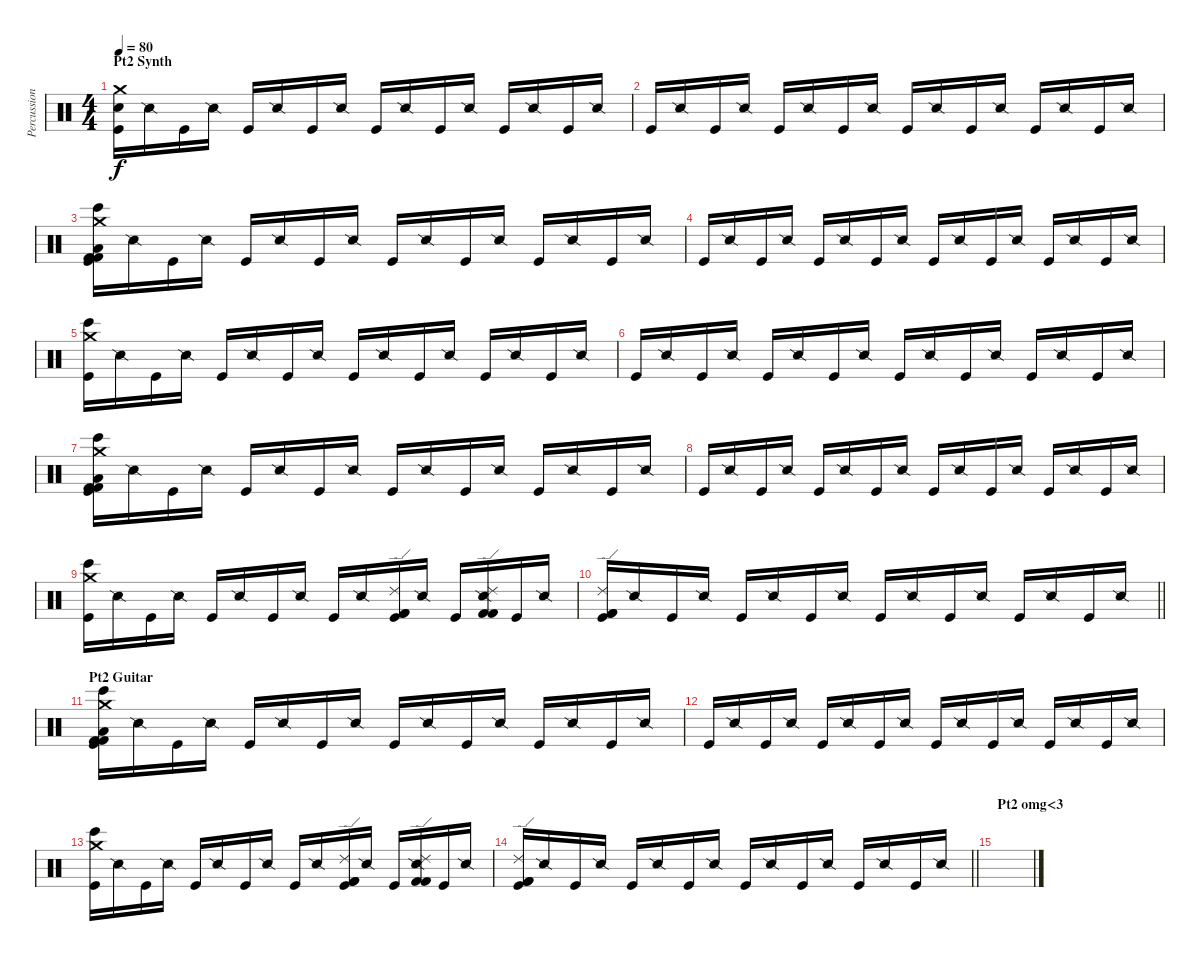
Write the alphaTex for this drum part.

\track ("Percussion" "Percussion") {instrument percussion}
\staff {score}
\articulation defaults
\ts (4 4)
\section ("" "Pt2 Synth")
\tempo 80
\clef neutral
\ks c
("Crash medium (hit)" "Electric Snare (hit)" "Kick (hit)").16{dy f} "Snare (side stick) 2".16 "Kick (hit)".16 "Snare (side stick) 2".16 "Kick (hit)".16 "Snare (side stick) 2".16 "Kick (hit)".16 "Snare (side stick) 2".16 "Kick (hit)".16 "Snare (side stick) 2".16 "Kick (hit)".16 "Snare (side stick) 2".16 "Kick (hit)".16 "Snare (side stick) 2".16 "Kick (hit)".16 "Snare (side stick) 2".16 |
"Kick (hit)".16 "Snare (side stick) 2".16 "Kick (hit)".16 "Snare (side stick) 2".16 "Kick (hit)".16 "Snare (side stick) 2".16 "Kick (hit)".16 "Snare (side stick) 2".16 "Kick (hit)".16 "Snare (side stick) 2".16 "Kick (hit)".16 "Snare (side stick) 2".16 "Kick (hit)".16 "Snare (side stick) 2".16 "Kick (hit)".16 "Snare (side stick) 2".16 |
("Crash medium (hit)" "Bongo High (hit)" "Kick (hit) 2" "Low Tom (hit)" "Kick (hit) 2" "Kick (hit)").16 "Snare (side stick) 2".16 "Kick (hit)".16 "Snare (side stick) 2".16 "Kick (hit)".16 "Snare (side stick) 2".16 "Kick (hit)".16 "Snare (side stick) 2".16 "Kick (hit)".16 "Snare (side stick) 2".16 "Kick (hit)".16 "Snare (side stick) 2".16 "Kick (hit)".16 "Snare (side stick) 2".16 "Kick (hit)".16 "Snare (side stick) 2".16 |
"Kick (hit)".16 "Snare (side stick) 2".16 "Kick (hit)".16 "Snare (side stick) 2".16 "Kick (hit)".16 "Snare (side stick) 2".16 "Kick (hit)".16 "Snare (side stick) 2".16 "Kick (hit)".16 "Snare (side stick) 2".16 "Kick (hit)".16 "Snare (side stick) 2".16 "Kick (hit)".16 "Snare (side stick) 2".16 "Kick (hit)".16 "Snare (side stick) 2".16 |
("Crash medium (hit)" "Bongo High (hit)" "Kick (hit)").16 "Snare (side stick) 2".16 "Kick (hit)".16 "Snare (side stick) 2".16 "Kick (hit)".16 "Snare (side stick) 2".16 "Kick (hit)".16 "Snare (side stick) 2".16 "Kick (hit)".16 "Snare (side stick) 2".16 "Kick (hit)".16 "Snare (side stick) 2".16 "Kick (hit)".16 "Snare (side stick) 2".16 "Kick (hit)".16 "Snare (side stick) 2".16 |
"Kick (hit)".16 "Snare (side stick) 2".16 "Kick (hit)".16 "Snare (side stick) 2".16 "Kick (hit)".16 "Snare (side stick) 2".16 "Kick (hit)".16 "Snare (side stick) 2".16 "Kick (hit)".16 "Snare (side stick) 2".16 "Kick (hit)".16 "Snare (side stick) 2".16 "Kick (hit)".16 "Snare (side stick) 2".16 "Kick (hit)".16 "Snare (side stick) 2".16 |
("Crash medium (hit)" "Bongo High (hit)" "Kick (hit) 2" "Low Tom (hit)" "Kick (hit) 2" "Kick (hit)").16 "Snare (side stick) 2".16 "Kick (hit)".16 "Snare (side stick) 2".16 "Kick (hit)".16 "Snare (side stick) 2".16 "Kick (hit)".16 "Snare (side stick) 2".16 "Kick (hit)".16 "Snare (side stick) 2".16 "Kick (hit)".16 "Snare (side stick) 2".16 "Kick (hit)".16 "Snare (side stick) 2".16 "Kick (hit)".16 "Snare (side stick) 2".16 |
"Kick (hit)".16 "Snare (side stick) 2".16 "Kick (hit)".16 "Snare (side stick) 2".16 "Kick (hit)".16 "Snare (side stick) 2".16 "Kick (hit)".16 "Snare (side stick) 2".16 "Kick (hit)".16 "Snare (side stick) 2".16 "Kick (hit)".16 "Snare (side stick) 2".16 "Kick (hit)".16 "Snare (side stick) 2".16 "Kick (hit)".16 "Snare (side stick) 2".16 |
("Crash medium (hit)" "Bongo High (hit)" "Kick (hit)").16 "Snare (side stick) 2".16 "Kick (hit)".16 "Snare (side stick) 2".16 "Kick (hit)".16 "Snare (side stick) 2".16 "Kick (hit)".16 "Snare (side stick) 2".16 "Kick (hit)".16 "Snare (side stick) 2".16 ("Ride (edge) 2" "Kick (hit) 2" "Kick (hit) 2" "Kick (hit)").16 "Snare (side stick) 2".16 "Kick (hit)".16 ("Ride (edge) 2" "Kick (hit) 2" "Kick (hit) 2" "Snare (side stick) 2").16 "Kick (hit)".16 "Snare (side stick) 2".16 |
\barLineRight lightlight
("Ride (edge) 2" "Kick (hit) 2" "Kick (hit) 2" "Kick (hit)").16 "Snare (side stick) 2".16 "Kick (hit)".16 "Snare (side stick) 2".16 "Kick (hit)".16 "Snare (side stick) 2".16 "Kick (hit)".16 "Snare (side stick) 2".16 "Kick (hit)".16 "Snare (side stick) 2".16 "Kick (hit)".16 "Snare (side stick) 2".16 "Kick (hit)".16 "Snare (side stick) 2".16 "Kick (hit)".16 "Snare (side stick) 2".16 |
\section ("" "Pt2 Guitar")
("Crash medium (hit)" "Bongo High (hit)" "Kick (hit) 2" "Low Tom (hit)" "Kick (hit) 2" "Kick (hit)").16 "Snare (side stick) 2".16 "Kick (hit)".16 "Snare (side stick) 2".16 "Kick (hit)".16 "Snare (side stick) 2".16 "Kick (hit)".16 "Snare (side stick) 2".16 "Kick (hit)".16 "Snare (side stick) 2".16 "Kick (hit)".16 "Snare (side stick) 2".16 "Kick (hit)".16 "Snare (side stick) 2".16 "Kick (hit)".16 "Snare (side stick) 2".16 |
"Kick (hit)".16 "Snare (side stick) 2".16 "Kick (hit)".16 "Snare (side stick) 2".16 "Kick (hit)".16 "Snare (side stick) 2".16 "Kick (hit)".16 "Snare (side stick) 2".16 "Kick (hit)".16 "Snare (side stick) 2".16 "Kick (hit)".16 "Snare (side stick) 2".16 "Kick (hit)".16 "Snare (side stick) 2".16 "Kick (hit)".16 "Snare (side stick) 2".16 |
("Crash medium (hit)" "Bongo High (hit)" "Kick (hit)").16 "Snare (side stick) 2".16 "Kick (hit)".16 "Snare (side stick) 2".16 "Kick (hit)".16 "Snare (side stick) 2".16 "Kick (hit)".16 "Snare (side stick) 2".16 "Kick (hit)".16 "Snare (side stick) 2".16 ("Ride (edge) 2" "Kick (hit) 2" "Kick (hit) 2" "Kick (hit)").16 "Snare (side stick) 2".16 "Kick (hit)".16 ("Ride (edge) 2" "Kick (hit) 2" "Kick (hit) 2" "Snare (side stick) 2").16 "Kick (hit)".16 "Snare (side stick) 2".16 |
\barLineRight lightlight
("Ride (edge) 2" "Kick (hit) 2" "Kick (hit) 2" "Kick (hit)").16 "Snare (side stick) 2".16 "Kick (hit)".16 "Snare (side stick) 2".16 "Kick (hit)".16 "Snare (side stick) 2".16 "Kick (hit)".16 "Snare (side stick) 2".16 "Kick (hit)".16 "Snare (side stick) 2".16 "Kick (hit)".16 "Snare (side stick) 2".16 "Kick (hit)".16 "Snare (side stick) 2".16 "Kick (hit)".16 "Snare (side stick) 2".16 |
\section ("" "Pt2 omg<3")
